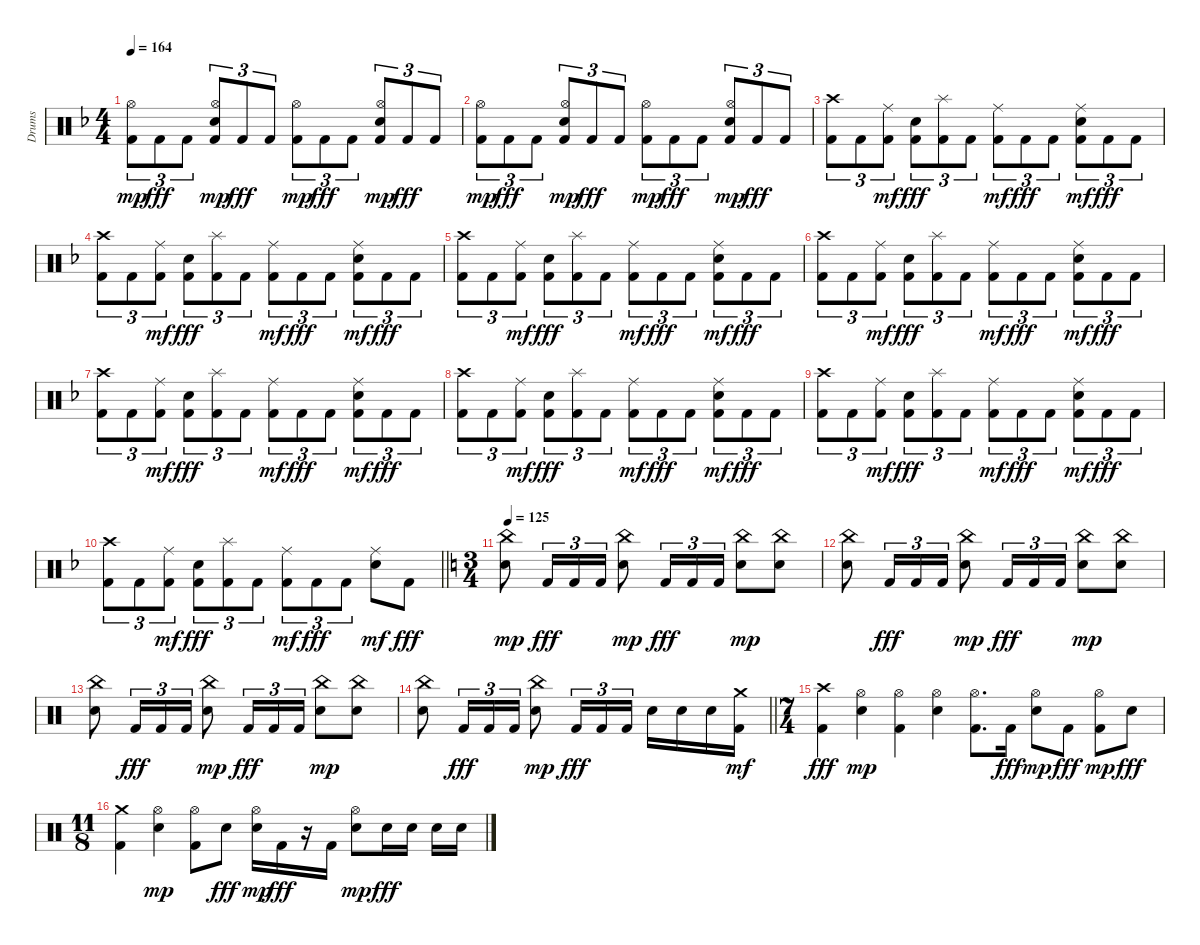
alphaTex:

\track ("Drums" "Drums") {instrument percussion}
\staff {score}
\articulation defaults
\ts (4 4)
\tempo 164
\clef neutral
\ks f
("Kick (hit) 2" "Hi-Hat (open)").8{tu (3 2) dy mp} "Kick (hit) 2".8{tu (3 2) dy fff} "Kick (hit) 2".8{tu (3 2)} ("Kick (hit) 2" "Electric Snare (hit)" "Hi-Hat (open)").8{tu (3 2) dy mp} "Kick (hit) 2".8{tu (3 2) dy fff} "Kick (hit) 2".8{tu (3 2)} ("Kick (hit) 2" "Hi-Hat (open)").8{tu (3 2) dy mp} "Kick (hit) 2".8{tu (3 2) dy fff} "Kick (hit) 2".8{tu (3 2)} ("Kick (hit) 2" "Electric Snare (hit)" "Hi-Hat (open)").8{tu (3 2) dy mp} "Kick (hit) 2".8{tu (3 2) dy fff} "Kick (hit) 2".8{tu (3 2)} |
("Kick (hit) 2" "Hi-Hat (open)").8{tu (3 2) dy mp} "Kick (hit) 2".8{tu (3 2) dy fff} "Kick (hit) 2".8{tu (3 2)} ("Kick (hit) 2" "Electric Snare (hit)" "Hi-Hat (open)").8{tu (3 2) dy mp} "Kick (hit) 2".8{tu (3 2) dy fff} "Kick (hit) 2".8{tu (3 2)} ("Kick (hit) 2" "Hi-Hat (open)").8{tu (3 2) dy mp} "Kick (hit) 2".8{tu (3 2) dy fff} "Kick (hit) 2".8{tu (3 2)} ("Kick (hit) 2" "Electric Snare (hit)" "Hi-Hat (open)").8{tu (3 2) dy mp} "Kick (hit) 2".8{tu (3 2) dy fff} "Kick (hit) 2".8{tu (3 2)} |
("Kick (hit) 2" "Crash high (hit)").8{tu (3 2)} "Kick (hit) 2".8{tu (3 2)} ("Kick (hit) 2" "Ride (middle)").8{tu (3 2) dy mf} ("Kick (hit) 2" "Electric Snare (hit)").8{tu (3 2) dy fff} ("Kick (hit) 2" "Splash (hit)").8{tu (3 2)} "Kick (hit) 2".8{tu (3 2)} ("Kick (hit) 2" "Ride (middle)").8{tu (3 2) dy mf} "Kick (hit) 2".8{tu (3 2) dy fff} "Kick (hit) 2".8{tu (3 2)} ("Kick (hit) 2" "Electric Snare (hit)" "Ride (middle)").8{tu (3 2) dy mf} "Kick (hit) 2".8{tu (3 2) dy fff} "Kick (hit) 2".8{tu (3 2)} |
("Kick (hit) 2" "Crash high (hit)").8{tu (3 2)} "Kick (hit) 2".8{tu (3 2)} ("Kick (hit) 2" "Ride (middle)").8{tu (3 2) dy mf} ("Kick (hit) 2" "Electric Snare (hit)").8{tu (3 2) dy fff} ("Kick (hit) 2" "Splash (hit)").8{tu (3 2)} "Kick (hit) 2".8{tu (3 2)} ("Kick (hit) 2" "Ride (middle)").8{tu (3 2) dy mf} "Kick (hit) 2".8{tu (3 2) dy fff} "Kick (hit) 2".8{tu (3 2)} ("Kick (hit) 2" "Electric Snare (hit)" "Ride (middle)").8{tu (3 2) dy mf} "Kick (hit) 2".8{tu (3 2) dy fff} "Kick (hit) 2".8{tu (3 2)} |
("Kick (hit) 2" "Crash high (hit)").8{tu (3 2)} "Kick (hit) 2".8{tu (3 2)} ("Kick (hit) 2" "Ride (middle)").8{tu (3 2) dy mf} ("Kick (hit) 2" "Electric Snare (hit)").8{tu (3 2) dy fff} ("Kick (hit) 2" "Splash (hit)").8{tu (3 2)} "Kick (hit) 2".8{tu (3 2)} ("Kick (hit) 2" "Ride (middle)").8{tu (3 2) dy mf} "Kick (hit) 2".8{tu (3 2) dy fff} "Kick (hit) 2".8{tu (3 2)} ("Kick (hit) 2" "Electric Snare (hit)" "Ride (middle)").8{tu (3 2) dy mf} "Kick (hit) 2".8{tu (3 2) dy fff} "Kick (hit) 2".8{tu (3 2)} |
("Kick (hit) 2" "Crash high (hit)").8{tu (3 2)} "Kick (hit) 2".8{tu (3 2)} ("Kick (hit) 2" "Ride (middle)").8{tu (3 2) dy mf} ("Kick (hit) 2" "Electric Snare (hit)").8{tu (3 2) dy fff} ("Kick (hit) 2" "Splash (hit)").8{tu (3 2)} "Kick (hit) 2".8{tu (3 2)} ("Kick (hit) 2" "Ride (middle)").8{tu (3 2) dy mf} "Kick (hit) 2".8{tu (3 2) dy fff} "Kick (hit) 2".8{tu (3 2)} ("Kick (hit) 2" "Electric Snare (hit)" "Ride (middle)").8{tu (3 2) dy mf} "Kick (hit) 2".8{tu (3 2) dy fff} "Kick (hit) 2".8{tu (3 2)} |
("Kick (hit) 2" "Crash high (hit)").8{tu (3 2)} "Kick (hit) 2".8{tu (3 2)} ("Kick (hit) 2" "Ride (middle)").8{tu (3 2) dy mf} ("Kick (hit) 2" "Electric Snare (hit)").8{tu (3 2) dy fff} ("Kick (hit) 2" "Splash (hit)").8{tu (3 2)} "Kick (hit) 2".8{tu (3 2)} ("Kick (hit) 2" "Ride (middle)").8{tu (3 2) dy mf} "Kick (hit) 2".8{tu (3 2) dy fff} "Kick (hit) 2".8{tu (3 2)} ("Kick (hit) 2" "Electric Snare (hit)" "Ride (middle)").8{tu (3 2) dy mf} "Kick (hit) 2".8{tu (3 2) dy fff} "Kick (hit) 2".8{tu (3 2)} |
("Kick (hit) 2" "Crash high (hit)").8{tu (3 2)} "Kick (hit) 2".8{tu (3 2)} ("Kick (hit) 2" "Ride (middle)").8{tu (3 2) dy mf} ("Kick (hit) 2" "Electric Snare (hit)").8{tu (3 2) dy fff} ("Kick (hit) 2" "Splash (hit)").8{tu (3 2)} "Kick (hit) 2".8{tu (3 2)} ("Kick (hit) 2" "Ride (middle)").8{tu (3 2) dy mf} "Kick (hit) 2".8{tu (3 2) dy fff} "Kick (hit) 2".8{tu (3 2)} ("Kick (hit) 2" "Electric Snare (hit)" "Ride (middle)").8{tu (3 2) dy mf} "Kick (hit) 2".8{tu (3 2) dy fff} "Kick (hit) 2".8{tu (3 2)} |
("Kick (hit) 2" "Crash high (hit)").8{tu (3 2)} "Kick (hit) 2".8{tu (3 2)} ("Kick (hit) 2" "Ride (middle)").8{tu (3 2) dy mf} ("Kick (hit) 2" "Electric Snare (hit)").8{tu (3 2) dy fff} ("Kick (hit) 2" "Splash (hit)").8{tu (3 2)} "Kick (hit) 2".8{tu (3 2)} ("Kick (hit) 2" "Ride (middle)").8{tu (3 2) dy mf} "Kick (hit) 2".8{tu (3 2) dy fff} "Kick (hit) 2".8{tu (3 2)} ("Kick (hit) 2" "Electric Snare (hit)" "Ride (middle)").8{tu (3 2) dy mf} "Kick (hit) 2".8{tu (3 2) dy fff} "Kick (hit) 2".8{tu (3 2)} |
\barLineRight lightlight
("Kick (hit) 2" "Crash high (hit)").8{tu (3 2)} "Kick (hit) 2".8{tu (3 2)} ("Kick (hit) 2" "Ride (middle)").8{tu (3 2) dy mf} ("Kick (hit) 2" "Electric Snare (hit)").8{tu (3 2) dy fff} ("Kick (hit) 2" "Splash (hit)").8{tu (3 2)} "Kick (hit) 2".8{tu (3 2)} ("Kick (hit) 2" "Ride (middle)").8{tu (3 2) dy mf} "Kick (hit) 2".8{tu (3 2) dy fff} "Kick (hit) 2".8{tu (3 2)} ("Electric Snare (hit)" "Ride (middle)").8{dy mf} "Kick (hit) 2".8{dy fff} |
\ts (3 4)
\tempo 125
\ks c
("Electric Snare (hit)" "China (hit)").8{dy mp} "Kick (hit) 2".16{tu (3 2) dy fff} "Kick (hit) 2".16{tu (3 2)} "Kick (hit) 2".16{tu (3 2)} ("Electric Snare (hit)" "China (hit)").8{dy mp} "Kick (hit) 2".16{tu (3 2) dy fff} "Kick (hit) 2".16{tu (3 2)} "Kick (hit) 2".16{tu (3 2)} ("Electric Snare (hit)" "China (hit)").8{dy mp} ("Electric Snare (hit)" "China (hit)").8 |
("Electric Snare (hit)" "China (hit)").8 "Kick (hit) 2".16{tu (3 2) dy fff} "Kick (hit) 2".16{tu (3 2)} "Kick (hit) 2".16{tu (3 2)} ("Electric Snare (hit)" "China (hit)").8{dy mp} "Kick (hit) 2".16{tu (3 2) dy fff} "Kick (hit) 2".16{tu (3 2)} "Kick (hit) 2".16{tu (3 2)} ("Electric Snare (hit)" "China (hit)").8{dy mp} ("Electric Snare (hit)" "China (hit)").8 |
("Electric Snare (hit)" "China (hit)").8 "Kick (hit) 2".16{tu (3 2) dy fff} "Kick (hit) 2".16{tu (3 2)} "Kick (hit) 2".16{tu (3 2)} ("Electric Snare (hit)" "China (hit)").8{dy mp} "Kick (hit) 2".16{tu (3 2) dy fff} "Kick (hit) 2".16{tu (3 2)} "Kick (hit) 2".16{tu (3 2)} ("Electric Snare (hit)" "China (hit)").8{dy mp} ("Electric Snare (hit)" "China (hit)").8 |
\barLineRight lightlight
("Electric Snare (hit)" "China (hit)").8 "Kick (hit) 2".16{tu (3 2) dy fff} "Kick (hit) 2".16{tu (3 2)} "Kick (hit) 2".16{tu (3 2)} ("Electric Snare (hit)" "China (hit)").8{dy mp} "Kick (hit) 2".16{tu (3 2) dy fff} "Kick (hit) 2".16{tu (3 2)} "Kick (hit) 2".16{tu (3 2)} "Electric Snare (hit)".16 "Electric Snare (hit)".16 "Electric Snare (hit)".16 ("Kick (hit) 2" "Crash medium (hit)").16{dy mf} |
\ts (7 4)
("Kick (hit) 2" "Crash high (hit)").4{dy fff} ("Electric Snare (hit)" "Hi-Hat (open)").4{dy mp} ("Kick (hit) 2" "Hi-Hat (open)").4 ("Electric Snare (hit)" "Hi-Hat (open)").4 ("Kick (hit) 2" "Hi-Hat (open)").8{d} "Kick (hit) 2".16{dy fff} ("Electric Snare (hit)" "Hi-Hat (open)").8{dy mp} "Kick (hit) 2".8{dy fff} ("Kick (hit) 2" "Hi-Hat (open)").8{dy mp} "Electric Snare (hit)".8{dy fff} |
\ts (11 8)
("Kick (hit) 2" "Crash medium (hit)").4 ("Electric Snare (hit)" "Hi-Hat (open)").4{dy mp} ("Kick (hit) 2" "Hi-Hat (open)").8 "Electric Snare (hit)".8{dy fff} ("Electric Snare (hit)" "Hi-Hat (open)").16{dy mp} "Kick (hit) 2".16{dy fff} r.16 "Kick (hit) 2".16 ("Electric Snare (hit)" "Hi-Hat (open)").8{dy mp} "Electric Snare (hit)".16{dy fff} "Electric Snare (hit)".16 "Electric Snare (hit)".16 "Electric Snare (hit)".16
